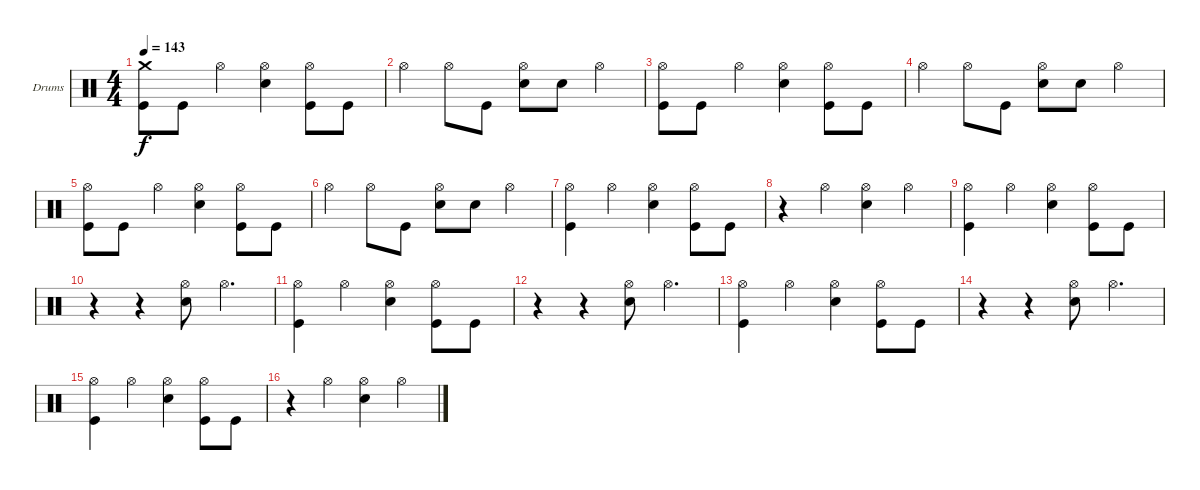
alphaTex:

\bracketExtendMode groupsimilarinstruments
\firstSystemTrackNameOrientation horizontal
\otherSystemsTrackNameOrientation horizontal
\track ("Drumkit" "Drums") {instrument percussion}
\staff {score}
\articulation defaults
\ts (4 4)
\tempo 143
\clef neutral
\ks c
("Crash medium (hit)" "Kick (hit)").8{dy f} "Kick (hit)".8 "Hi-Hat (open)".4 ("Hi-Hat (open)" "Snare (hit) 2").4 ("Hi-Hat (open)" "Kick (hit)").8 "Kick (hit)".8 |
"Hi-Hat (open)".4 "Hi-Hat (open)".8 "Kick (hit)".8 ("Hi-Hat (open)" "Snare (hit) 2").8 "Snare (hit) 2".8 "Hi-Hat (open)".4 |
("Hi-Hat (open)" "Kick (hit)").8 "Kick (hit)".8 "Hi-Hat (open)".4 ("Hi-Hat (open)" "Snare (hit) 2").4 ("Hi-Hat (open)" "Kick (hit)").8 "Kick (hit)".8 |
"Hi-Hat (open)".4 "Hi-Hat (open)".8 "Kick (hit)".8 ("Hi-Hat (open)" "Snare (hit) 2").8 "Snare (hit) 2".8 "Hi-Hat (open)".4 |
("Hi-Hat (open)" "Kick (hit)").8 "Kick (hit)".8 "Hi-Hat (open)".4 ("Hi-Hat (open)" "Snare (hit) 2").4 ("Hi-Hat (open)" "Kick (hit)").8 "Kick (hit)".8 |
"Hi-Hat (open)".4 "Hi-Hat (open)".8 "Kick (hit)".8 ("Hi-Hat (open)" "Snare (hit) 2").8 "Snare (hit) 2".8 "Hi-Hat (open)".4 |
("Hi-Hat (open)" "Kick (hit)").4 "Hi-Hat (open)".4 ("Hi-Hat (open)" "Snare (hit) 2").4 ("Hi-Hat (open)" "Kick (hit)").8 "Kick (hit)".8 |
r.4 "Hi-Hat (open)".4 ("Hi-Hat (open)" "Snare (hit) 2").4 "Hi-Hat (open)".4 |
("Hi-Hat (open)" "Kick (hit)").4 "Hi-Hat (open)".4 ("Hi-Hat (open)" "Snare (hit) 2").4 ("Hi-Hat (open)" "Kick (hit)").8 "Kick (hit)".8 |
r.4 r.4 ("Hi-Hat (open)" "Snare (hit) 2").8 "Hi-Hat (open)".4{d} |
("Hi-Hat (open)" "Kick (hit)").4 "Hi-Hat (open)".4 ("Hi-Hat (open)" "Snare (hit) 2").4 ("Hi-Hat (open)" "Kick (hit)").8 "Kick (hit)".8 |
r.4 r.4 ("Hi-Hat (open)" "Snare (hit) 2").8 "Hi-Hat (open)".4{d} |
("Hi-Hat (open)" "Kick (hit)").4 "Hi-Hat (open)".4 ("Hi-Hat (open)" "Snare (hit) 2").4 ("Hi-Hat (open)" "Kick (hit)").8 "Kick (hit)".8 |
r.4 r.4 ("Hi-Hat (open)" "Snare (hit) 2").8 "Hi-Hat (open)".4{d} |
("Hi-Hat (open)" "Kick (hit)").4 "Hi-Hat (open)".4 ("Hi-Hat (open)" "Snare (hit) 2").4 ("Hi-Hat (open)" "Kick (hit)").8 "Kick (hit)".8 |
r.4 "Hi-Hat (open)".4 ("Hi-Hat (open)" "Snare (hit) 2").4 "Hi-Hat (open)".4
